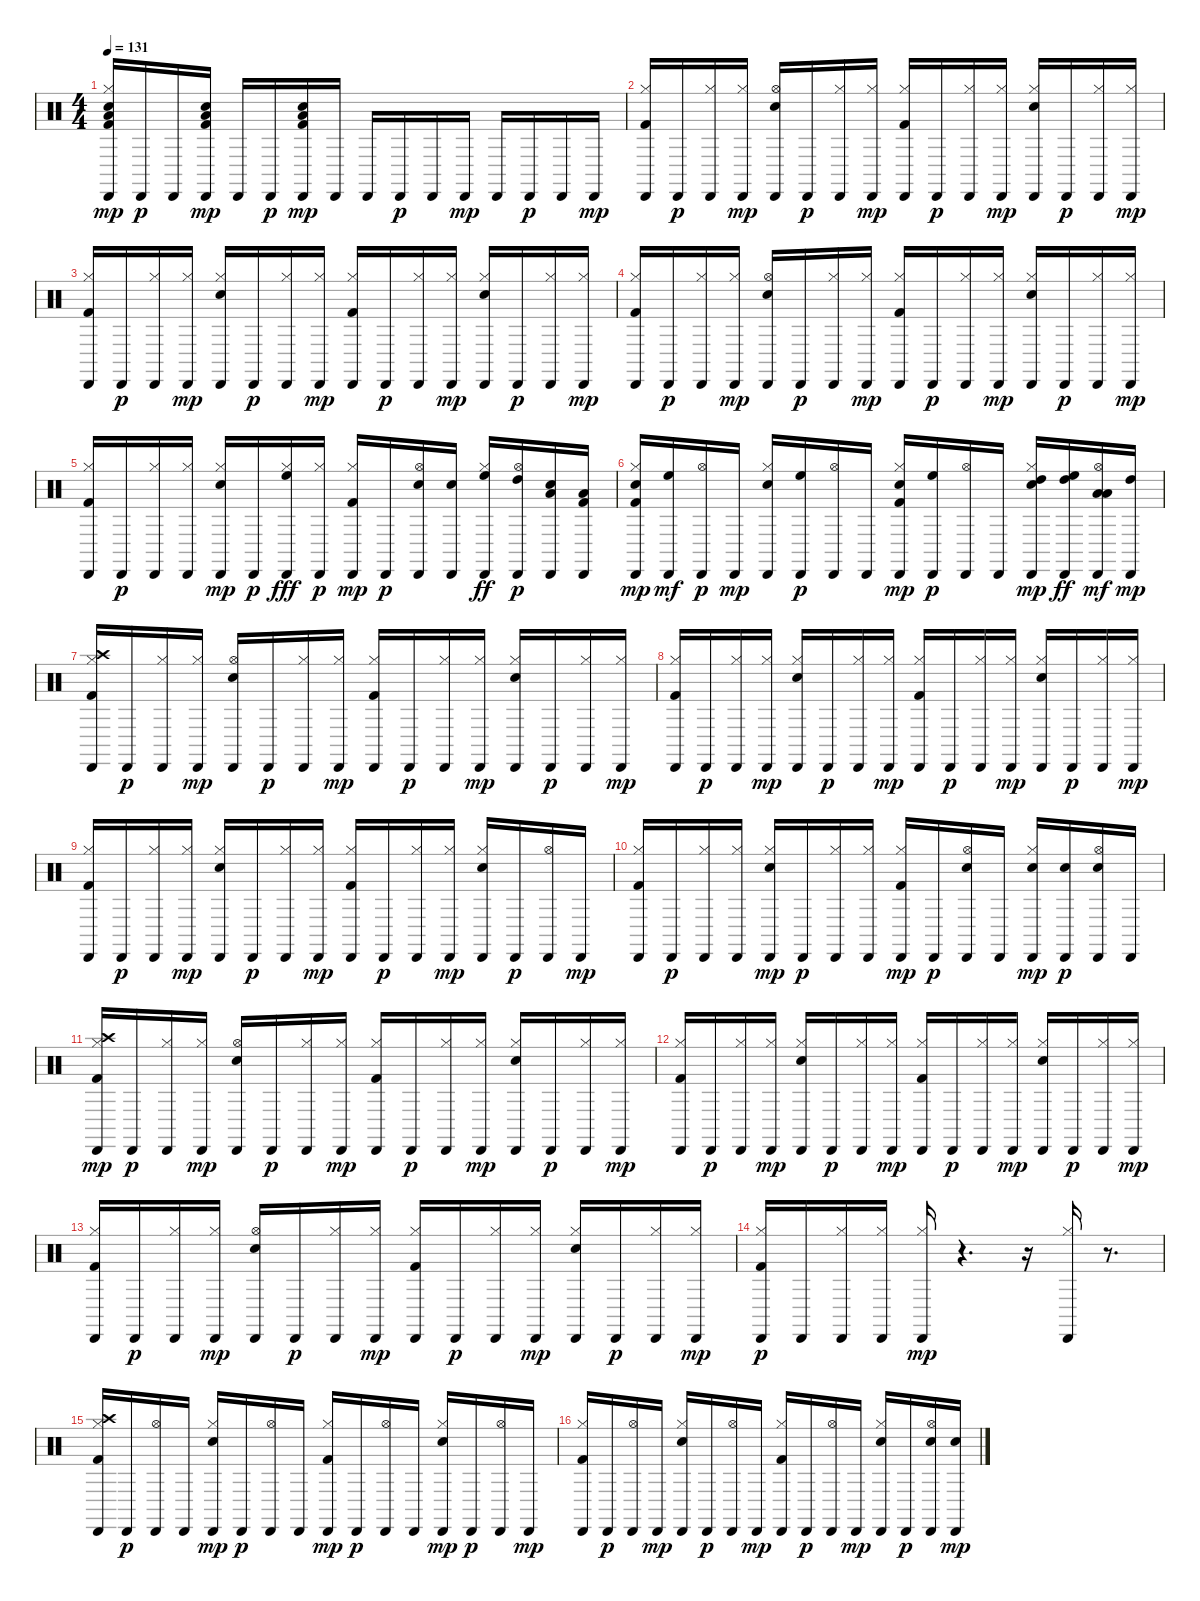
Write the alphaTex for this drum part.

\track "" {instrument percussion}
\staff {score}
\articulation defaults
\ts (4 4)
\tempo 131
\clef neutral
\ks c
("Cabasa (hit)" "Hi-Hat (closed)" "Kick (hit) 2" "Low Floor Tom (hit)" "Snare (hit) 2").16{dy mp} "Cabasa (hit)".16{dy p} "Cabasa (hit)".16 ("Cabasa (hit)" "Kick (hit) 2" "Snare (hit) 2" "Low Floor Tom (hit)").16{dy mp} "Cabasa (hit)".16 "Cabasa (hit)".16{dy p} ("Cabasa (hit)" "Kick (hit) 2" "Snare (hit) 2" "Low Floor Tom (hit)").16{dy mp} "Cabasa (hit)".16 "Cabasa (hit)".16 "Cabasa (hit)".16{dy p} "Cabasa (hit)".16 "Cabasa (hit)".16{dy mp} "Cabasa (hit)".16 "Cabasa (hit)".16{dy p} "Cabasa (hit)".16 "Cabasa (hit)".16{dy mp} |
("Kick (hit) 2" "Hi-Hat (closed)" "Cabasa (hit)").16 "Cabasa (hit)".16{dy p} ("Hi-Hat (closed)" "Cabasa (hit)").16 ("Hi-Hat (closed)" "Cabasa (hit)").16{dy mp} ("Snare (hit) 2" "Hi-Hat (open)" "Cabasa (hit)").16 "Cabasa (hit)".16{dy p} ("Hi-Hat (closed)" "Cabasa (hit)").16 ("Hi-Hat (closed)" "Cabasa (hit)").16{dy mp} ("Kick (hit) 2" "Hi-Hat (closed)" "Cabasa (hit)").16 "Cabasa (hit)".16{dy p} ("Hi-Hat (closed)" "Cabasa (hit)").16 ("Hi-Hat (closed)" "Cabasa (hit)").16{dy mp} ("Snare (hit) 2" "Hi-Hat (closed)" "Cabasa (hit)").16 "Cabasa (hit)".16{dy p} ("Hi-Hat (closed)" "Cabasa (hit)").16 ("Hi-Hat (closed)" "Cabasa (hit)").16{dy mp} |
("Kick (hit) 2" "Hi-Hat (closed)" "Cabasa (hit)").16 "Cabasa (hit)".16{dy p} ("Hi-Hat (closed)" "Cabasa (hit)").16 ("Hi-Hat (closed)" "Cabasa (hit)").16{dy mp} ("Snare (hit) 2" "Hi-Hat (closed)" "Cabasa (hit)").16 "Cabasa (hit)".16{dy p} ("Hi-Hat (closed)" "Cabasa (hit)").16 ("Hi-Hat (closed)" "Cabasa (hit)").16{dy mp} ("Kick (hit) 2" "Hi-Hat (closed)" "Cabasa (hit)").16 "Cabasa (hit)".16{dy p} ("Hi-Hat (closed)" "Cabasa (hit)").16 ("Hi-Hat (closed)" "Cabasa (hit)").16{dy mp} ("Snare (hit) 2" "Hi-Hat (closed)" "Cabasa (hit)").16 "Cabasa (hit)".16{dy p} ("Hi-Hat (closed)" "Cabasa (hit)").16 ("Hi-Hat (closed)" "Cabasa (hit)").16{dy mp} |
("Kick (hit) 2" "Hi-Hat (closed)" "Cabasa (hit)").16 "Cabasa (hit)".16{dy p} ("Hi-Hat (closed)" "Cabasa (hit)").16 ("Hi-Hat (closed)" "Cabasa (hit)").16{dy mp} ("Snare (hit) 2" "Hi-Hat (open)" "Cabasa (hit)").16 "Cabasa (hit)".16{dy p} ("Hi-Hat (closed)" "Cabasa (hit)").16 ("Hi-Hat (closed)" "Cabasa (hit)").16{dy mp} ("Kick (hit) 2" "Hi-Hat (closed)" "Cabasa (hit)").16 "Cabasa (hit)".16{dy p} ("Hi-Hat (closed)" "Cabasa (hit)").16 ("Hi-Hat (closed)" "Cabasa (hit)").16{dy mp} ("Snare (hit) 2" "Hi-Hat (closed)" "Cabasa (hit)").16 "Cabasa (hit)".16{dy p} ("Hi-Hat (closed)" "Cabasa (hit)").16 ("Hi-Hat (closed)" "Cabasa (hit)").16{dy mp} |
("Kick (hit) 2" "Hi-Hat (closed)" "Cabasa (hit)").16 "Cabasa (hit)".16{dy p} ("Hi-Hat (closed)" "Cabasa (hit)").16 ("Hi-Hat (closed)" "Cabasa (hit)").16 ("Snare (hit) 2" "Hi-Hat (closed)" "Cabasa (hit)").16{dy mp} "Cabasa (hit)".16{dy p} ("Hi-Hat (closed)" "Cabasa (hit)" "High Floor Tom (hit)").16{dy fff} ("Hi-Hat (closed)" "Cabasa (hit)").16{dy p} ("Kick (hit) 2" "Hi-Hat (closed)" "Cabasa (hit)").16{dy mp} "Cabasa (hit)".16{dy p} ("Snare (hit) 2" "Hi-Hat (open)" "Cabasa (hit)").16 ("Snare (hit) 2" "Cabasa (hit)").16 ("Hi-Hat (closed)" "Cabasa (hit)" "High Floor Tom (hit)").16{dy ff} ("Hi-Hat (open)" "High Tom (hit)" "Cabasa (hit)").16{dy p} ("Snare (hit) 2" "Low Tom (hit)" "Cabasa (hit)").16 ("Kick (hit) 2" "Low Floor Tom (hit)" "Cabasa (hit)").16 |
("Kick (hit) 2" "Snare (hit) 2" "Hi-Hat (closed)" "Cabasa (hit)").16{dy mp} ("Cabasa (hit)" "High Floor Tom (hit)").16{dy mf} ("Hi-Hat (open)" "Cabasa (hit)").16{dy p} "Cabasa (hit)".16{dy mp} ("Snare (hit) 2" "Hi-Hat (closed)" "Cabasa (hit)").16 ("Cabasa (hit)" "High Floor Tom (hit)").16{dy p} ("Hi-Hat (open)" "Cabasa (hit)").16 "Cabasa (hit)".16 ("Kick (hit) 2" "Snare (hit) 2" "Hi-Hat (closed)" "Cabasa (hit)").16{dy mp} ("Cabasa (hit)" "High Floor Tom (hit)").16{dy p} ("Hi-Hat (open)" "Cabasa (hit)").16 "Cabasa (hit)".16 ("Snare (hit) 2" "Hi-Hat (closed)" "High Tom (hit)" "Cabasa (hit)").16{dy mp} ("High Tom (hit)" "Cabasa (hit)" "High Floor Tom (hit)").16{dy ff} ("Low Tom (hit)" "Hi-Hat (open)" "Cabasa (hit)" "Low Tom (hit)").16{dy mf} ("High Tom (hit)" "Cabasa (hit)").16{dy mp} |
("Kick (hit) 2" "Hi-Hat (closed)" "Crash high (hit)" "Cabasa (hit)").16 "Cabasa (hit)".16{dy p} ("Hi-Hat (closed)" "Cabasa (hit)").16 ("Hi-Hat (closed)" "Cabasa (hit)").16{dy mp} ("Snare (hit) 2" "Hi-Hat (open)" "Cabasa (hit)").16 "Cabasa (hit)".16{dy p} ("Hi-Hat (closed)" "Cabasa (hit)").16 ("Hi-Hat (closed)" "Cabasa (hit)").16{dy mp} ("Kick (hit) 2" "Hi-Hat (closed)" "Cabasa (hit)").16 "Cabasa (hit)".16{dy p} ("Hi-Hat (closed)" "Cabasa (hit)").16 ("Hi-Hat (closed)" "Cabasa (hit)").16{dy mp} ("Snare (hit) 2" "Hi-Hat (closed)" "Cabasa (hit)").16 "Cabasa (hit)".16{dy p} ("Hi-Hat (closed)" "Cabasa (hit)").16 ("Hi-Hat (closed)" "Cabasa (hit)").16{dy mp} |
("Kick (hit) 2" "Hi-Hat (closed)" "Cabasa (hit)").16 "Cabasa (hit)".16{dy p} ("Hi-Hat (closed)" "Cabasa (hit)").16 ("Hi-Hat (closed)" "Cabasa (hit)").16{dy mp} ("Snare (hit) 2" "Hi-Hat (closed)" "Cabasa (hit)").16 "Cabasa (hit)".16{dy p} ("Hi-Hat (closed)" "Cabasa (hit)").16 ("Hi-Hat (closed)" "Cabasa (hit)").16{dy mp} ("Kick (hit) 2" "Hi-Hat (closed)" "Cabasa (hit)").16 "Cabasa (hit)".16{dy p} ("Hi-Hat (closed)" "Cabasa (hit)").16 ("Hi-Hat (closed)" "Cabasa (hit)").16{dy mp} ("Snare (hit) 2" "Hi-Hat (closed)" "Cabasa (hit)").16 "Cabasa (hit)".16{dy p} ("Hi-Hat (closed)" "Cabasa (hit)").16 ("Hi-Hat (closed)" "Cabasa (hit)").16{dy mp} |
("Kick (hit) 2" "Hi-Hat (closed)" "Cabasa (hit)").16 "Cabasa (hit)".16{dy p} ("Hi-Hat (closed)" "Cabasa (hit)").16 ("Hi-Hat (closed)" "Cabasa (hit)").16{dy mp} ("Snare (hit) 2" "Hi-Hat (closed)" "Cabasa (hit)").16 "Cabasa (hit)".16{dy p} ("Hi-Hat (closed)" "Cabasa (hit)").16 ("Hi-Hat (closed)" "Cabasa (hit)").16{dy mp} ("Kick (hit) 2" "Hi-Hat (closed)" "Cabasa (hit)").16 "Cabasa (hit)".16{dy p} ("Hi-Hat (closed)" "Cabasa (hit)").16 ("Hi-Hat (closed)" "Cabasa (hit)").16{dy mp} ("Snare (hit) 2" "Hi-Hat (closed)" "Cabasa (hit)").16 "Cabasa (hit)".16{dy p} ("Hi-Hat (open)" "Cabasa (hit)").16 "Cabasa (hit)".16{dy mp} |
("Kick (hit) 2" "Hi-Hat (closed)" "Cabasa (hit)").16 "Cabasa (hit)".16{dy p} ("Hi-Hat (closed)" "Cabasa (hit)").16 ("Hi-Hat (closed)" "Cabasa (hit)").16 ("Snare (hit) 2" "Hi-Hat (closed)" "Cabasa (hit)").16{dy mp} "Cabasa (hit)".16{dy p} ("Hi-Hat (closed)" "Cabasa (hit)").16 ("Hi-Hat (closed)" "Cabasa (hit)").16 ("Kick (hit) 2" "Hi-Hat (closed)" "Cabasa (hit)").16{dy mp} "Cabasa (hit)".16{dy p} ("Snare (hit) 2" "Hi-Hat (open)" "Cabasa (hit)").16 "Cabasa (hit)".16 ("Snare (hit) 2" "Hi-Hat (closed)" "Cabasa (hit)").16{dy mp} ("Snare (hit) 2" "Cabasa (hit)").16{dy p} ("Snare (hit) 2" "Hi-Hat (open)" "Cabasa (hit)").16 "Cabasa (hit)".16 |
("Kick (hit) 2" "Hi-Hat (closed)" "Crash high (hit)" "Cabasa (hit)").16{dy mp} "Cabasa (hit)".16{dy p} ("Hi-Hat (closed)" "Cabasa (hit)").16 ("Hi-Hat (closed)" "Cabasa (hit)").16{dy mp} ("Snare (hit) 2" "Hi-Hat (open)" "Cabasa (hit)").16 "Cabasa (hit)".16{dy p} ("Hi-Hat (closed)" "Cabasa (hit)").16 ("Hi-Hat (closed)" "Cabasa (hit)").16{dy mp} ("Kick (hit) 2" "Hi-Hat (closed)" "Cabasa (hit)").16 "Cabasa (hit)".16{dy p} ("Hi-Hat (closed)" "Cabasa (hit)").16 ("Hi-Hat (closed)" "Cabasa (hit)").16{dy mp} ("Snare (hit) 2" "Hi-Hat (closed)" "Cabasa (hit)").16 "Cabasa (hit)".16{dy p} ("Hi-Hat (closed)" "Cabasa (hit)").16 ("Hi-Hat (closed)" "Cabasa (hit)").16{dy mp} |
("Kick (hit) 2" "Hi-Hat (closed)" "Cabasa (hit)").16 "Cabasa (hit)".16{dy p} ("Hi-Hat (closed)" "Cabasa (hit)").16 ("Hi-Hat (closed)" "Cabasa (hit)").16{dy mp} ("Snare (hit) 2" "Hi-Hat (closed)" "Cabasa (hit)").16 "Cabasa (hit)".16{dy p} ("Hi-Hat (closed)" "Cabasa (hit)").16 ("Hi-Hat (closed)" "Cabasa (hit)").16{dy mp} ("Kick (hit) 2" "Hi-Hat (closed)" "Cabasa (hit)").16 "Cabasa (hit)".16{dy p} ("Hi-Hat (closed)" "Cabasa (hit)").16 ("Hi-Hat (closed)" "Cabasa (hit)").16{dy mp} ("Snare (hit) 2" "Hi-Hat (closed)" "Cabasa (hit)").16 "Cabasa (hit)".16{dy p} ("Hi-Hat (closed)" "Cabasa (hit)").16 ("Hi-Hat (closed)" "Cabasa (hit)").16{dy mp} |
("Kick (hit) 2" "Hi-Hat (closed)" "Cabasa (hit)").16 "Cabasa (hit)".16{dy p} ("Hi-Hat (closed)" "Cabasa (hit)").16 ("Hi-Hat (closed)" "Cabasa (hit)").16{dy mp} ("Snare (hit) 2" "Hi-Hat (open)" "Cabasa (hit)").16 "Cabasa (hit)".16{dy p} ("Hi-Hat (closed)" "Cabasa (hit)").16 ("Hi-Hat (closed)" "Cabasa (hit)").16{dy mp} ("Kick (hit) 2" "Hi-Hat (closed)" "Cabasa (hit)").16 "Cabasa (hit)".16{dy p} ("Hi-Hat (closed)" "Cabasa (hit)").16 ("Hi-Hat (closed)" "Cabasa (hit)").16{dy mp} ("Snare (hit) 2" "Hi-Hat (closed)" "Cabasa (hit)").16 "Cabasa (hit)".16{dy p} ("Hi-Hat (closed)" "Cabasa (hit)").16 ("Hi-Hat (closed)" "Cabasa (hit)").16{dy mp} |
("Kick (hit) 2" "Hi-Hat (closed)" "Cabasa (hit)").16{dy p} "Cabasa (hit)".16 ("Hi-Hat (closed)" "Cabasa (hit)").16 ("Hi-Hat (closed)" "Cabasa (hit)").16 ("Hi-Hat (closed)" "Cabasa (hit)").16{dy mp} r.4{d} r.16 ("Hi-Hat (closed)" "Cabasa (hit)").16 r.8{d} |
("Kick (hit) 2" "Hi-Hat (closed)" "Crash high (hit)" "Cabasa (hit)").16 "Cabasa (hit)".16{dy p} ("Hi-Hat (open)" "Cabasa (hit)").16 "Cabasa (hit)".16 ("Snare (hit) 2" "Hi-Hat (closed)" "Cabasa (hit)").16{dy mp} "Cabasa (hit)".16{dy p} ("Hi-Hat (open)" "Cabasa (hit)").16 "Cabasa (hit)".16 ("Kick (hit) 2" "Hi-Hat (closed)" "Cabasa (hit)").16{dy mp} "Cabasa (hit)".16{dy p} ("Hi-Hat (open)" "Cabasa (hit)").16 "Cabasa (hit)".16 ("Snare (hit) 2" "Hi-Hat (closed)" "Cabasa (hit)").16{dy mp} "Cabasa (hit)".16{dy p} ("Hi-Hat (open)" "Cabasa (hit)").16 "Cabasa (hit)".16{dy mp} |
("Kick (hit) 2" "Hi-Hat (closed)" "Cabasa (hit)").16 "Cabasa (hit)".16{dy p} ("Hi-Hat (open)" "Cabasa (hit)").16 "Cabasa (hit)".16{dy mp} ("Snare (hit) 2" "Hi-Hat (closed)" "Cabasa (hit)").16 "Cabasa (hit)".16{dy p} ("Hi-Hat (open)" "Cabasa (hit)").16 "Cabasa (hit)".16{dy mp} ("Kick (hit) 2" "Hi-Hat (closed)" "Cabasa (hit)").16 "Cabasa (hit)".16{dy p} ("Hi-Hat (open)" "Cabasa (hit)").16 "Cabasa (hit)".16{dy mp} ("Snare (hit) 2" "Hi-Hat (closed)" "Cabasa (hit)").16 "Cabasa (hit)".16{dy p} ("Snare (hit) 2" "Hi-Hat (open)" "Cabasa (hit)").16 ("Snare (hit) 2" "Cabasa (hit)").16{dy mp}
